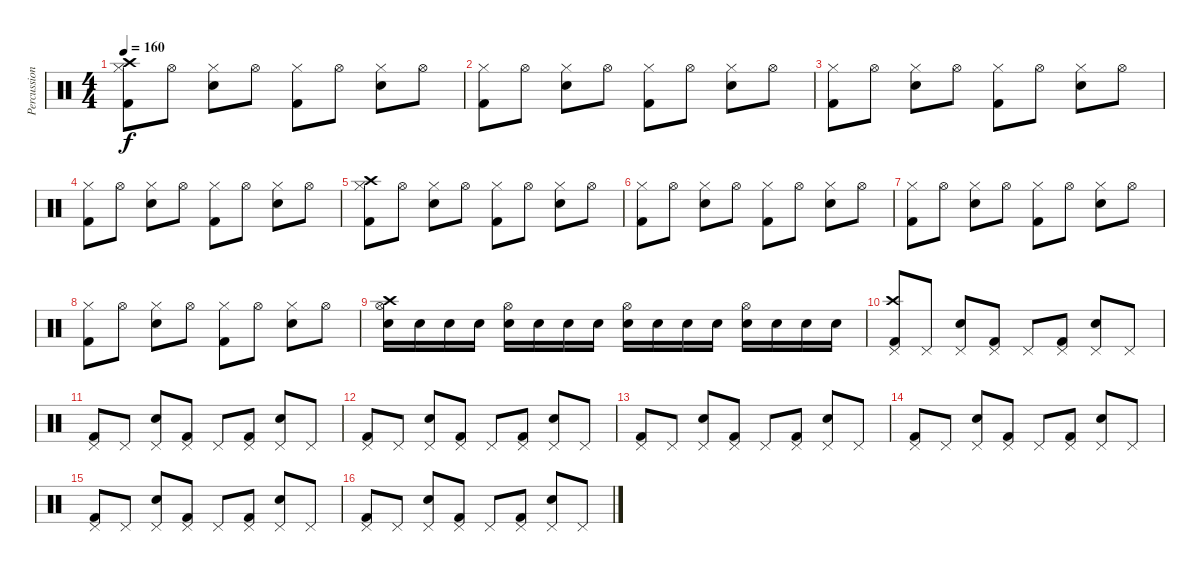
\track ("Percussion" "Percussion") {instrument percussion}
\staff {score}
\articulation defaults
\ts (4 4)
\tempo 160
\clef neutral
\ks c
("Hi-Hat (closed)" "Kick (hit) 2" "Crash high (hit)").8{dy f} "Hi-Hat (open)".8 ("Hi-Hat (closed)" "Electric Snare (hit)").8 "Hi-Hat (open)".8 ("Hi-Hat (closed)" "Kick (hit) 2").8 "Hi-Hat (open)".8 ("Hi-Hat (closed)" "Electric Snare (hit)").8 "Hi-Hat (open)".8 |
("Hi-Hat (closed)" "Kick (hit) 2").8 "Hi-Hat (open)".8 ("Hi-Hat (closed)" "Electric Snare (hit)").8 "Hi-Hat (open)".8 ("Hi-Hat (closed)" "Kick (hit) 2").8 "Hi-Hat (open)".8 ("Hi-Hat (closed)" "Electric Snare (hit)").8 "Hi-Hat (open)".8 |
("Hi-Hat (closed)" "Kick (hit) 2").8 "Hi-Hat (open)".8 ("Hi-Hat (closed)" "Electric Snare (hit)").8 "Hi-Hat (open)".8 ("Hi-Hat (closed)" "Kick (hit) 2").8 "Hi-Hat (open)".8 ("Hi-Hat (closed)" "Electric Snare (hit)").8 "Hi-Hat (open)".8 |
("Hi-Hat (closed)" "Kick (hit) 2").8 "Hi-Hat (open)".8 ("Hi-Hat (closed)" "Electric Snare (hit)").8 "Hi-Hat (open)".8 ("Hi-Hat (closed)" "Kick (hit) 2").8 "Hi-Hat (open)".8 ("Hi-Hat (closed)" "Electric Snare (hit)").8 "Hi-Hat (open)".8 |
("Hi-Hat (closed)" "Kick (hit) 2" "Crash high (hit)").8 "Hi-Hat (open)".8 ("Hi-Hat (closed)" "Electric Snare (hit)").8 "Hi-Hat (open)".8 ("Hi-Hat (closed)" "Kick (hit) 2").8 "Hi-Hat (open)".8 ("Hi-Hat (closed)" "Electric Snare (hit)").8 "Hi-Hat (open)".8 |
("Hi-Hat (closed)" "Kick (hit) 2").8 "Hi-Hat (open)".8 ("Hi-Hat (closed)" "Electric Snare (hit)").8 "Hi-Hat (open)".8 ("Hi-Hat (closed)" "Kick (hit) 2").8 "Hi-Hat (open)".8 ("Hi-Hat (closed)" "Electric Snare (hit)").8 "Hi-Hat (open)".8 |
("Hi-Hat (closed)" "Kick (hit) 2").8 "Hi-Hat (open)".8 ("Hi-Hat (closed)" "Electric Snare (hit)").8 "Hi-Hat (open)".8 ("Hi-Hat (closed)" "Kick (hit) 2").8 "Hi-Hat (open)".8 ("Hi-Hat (closed)" "Electric Snare (hit)").8 "Hi-Hat (open)".8 |
("Hi-Hat (closed)" "Kick (hit) 2").8 "Hi-Hat (open)".8 ("Hi-Hat (closed)" "Electric Snare (hit)").8 "Hi-Hat (open)".8 ("Hi-Hat (closed)" "Kick (hit) 2").8 "Hi-Hat (open)".8 ("Hi-Hat (closed)" "Electric Snare (hit)").8 "Hi-Hat (open)".8 |
("Hi-Hat (open)" "Electric Snare (hit)" "Crash high (hit)").16 "Electric Snare (hit)".16 "Electric Snare (hit)".16 "Electric Snare (hit)".16 ("Hi-Hat (open)" "Electric Snare (hit)").16 "Electric Snare (hit)".16 "Electric Snare (hit)".16 "Electric Snare (hit)".16 ("Hi-Hat (open)" "Electric Snare (hit)").16 "Electric Snare (hit)".16 "Electric Snare (hit)".16 "Electric Snare (hit)".16 ("Hi-Hat (open)" "Electric Snare (hit)").16 "Electric Snare (hit)".16 "Electric Snare (hit)".16 "Electric Snare (hit)".16 |
("Pedal Hi-Hat (hit)" "Kick (hit) 2" "Crash high (hit)").8 "Pedal Hi-Hat (hit)".8 ("Pedal Hi-Hat (hit)" "Electric Snare (hit)").8 ("Pedal Hi-Hat (hit)" "Kick (hit) 2").8 "Pedal Hi-Hat (hit)".8 ("Pedal Hi-Hat (hit)" "Kick (hit) 2").8 ("Pedal Hi-Hat (hit)" "Electric Snare (hit)").8 "Pedal Hi-Hat (hit)".8 |
("Pedal Hi-Hat (hit)" "Kick (hit) 2").8 "Pedal Hi-Hat (hit)".8 ("Pedal Hi-Hat (hit)" "Electric Snare (hit)").8 ("Pedal Hi-Hat (hit)" "Kick (hit) 2").8 "Pedal Hi-Hat (hit)".8 ("Pedal Hi-Hat (hit)" "Kick (hit) 2").8 ("Pedal Hi-Hat (hit)" "Electric Snare (hit)").8 "Pedal Hi-Hat (hit)".8 |
("Pedal Hi-Hat (hit)" "Kick (hit) 2").8 "Pedal Hi-Hat (hit)".8 ("Pedal Hi-Hat (hit)" "Electric Snare (hit)").8 ("Pedal Hi-Hat (hit)" "Kick (hit) 2").8 "Pedal Hi-Hat (hit)".8 ("Pedal Hi-Hat (hit)" "Kick (hit) 2").8 ("Pedal Hi-Hat (hit)" "Electric Snare (hit)").8 "Pedal Hi-Hat (hit)".8 |
("Pedal Hi-Hat (hit)" "Kick (hit) 2").8 "Pedal Hi-Hat (hit)".8 ("Pedal Hi-Hat (hit)" "Electric Snare (hit)").8 ("Pedal Hi-Hat (hit)" "Kick (hit) 2").8 "Pedal Hi-Hat (hit)".8 ("Pedal Hi-Hat (hit)" "Kick (hit) 2").8 ("Pedal Hi-Hat (hit)" "Electric Snare (hit)").8 "Pedal Hi-Hat (hit)".8 |
("Pedal Hi-Hat (hit)" "Kick (hit) 2").8 "Pedal Hi-Hat (hit)".8 ("Pedal Hi-Hat (hit)" "Electric Snare (hit)").8 ("Pedal Hi-Hat (hit)" "Kick (hit) 2").8 "Pedal Hi-Hat (hit)".8 ("Pedal Hi-Hat (hit)" "Kick (hit) 2").8 ("Pedal Hi-Hat (hit)" "Electric Snare (hit)").8 "Pedal Hi-Hat (hit)".8 |
("Pedal Hi-Hat (hit)" "Kick (hit) 2").8 "Pedal Hi-Hat (hit)".8 ("Pedal Hi-Hat (hit)" "Electric Snare (hit)").8 ("Pedal Hi-Hat (hit)" "Kick (hit) 2").8 "Pedal Hi-Hat (hit)".8 ("Pedal Hi-Hat (hit)" "Kick (hit) 2").8 ("Pedal Hi-Hat (hit)" "Electric Snare (hit)").8 "Pedal Hi-Hat (hit)".8 |
("Pedal Hi-Hat (hit)" "Kick (hit) 2").8 "Pedal Hi-Hat (hit)".8 ("Pedal Hi-Hat (hit)" "Electric Snare (hit)").8 ("Pedal Hi-Hat (hit)" "Kick (hit) 2").8 "Pedal Hi-Hat (hit)".8 ("Pedal Hi-Hat (hit)" "Kick (hit) 2").8 ("Pedal Hi-Hat (hit)" "Electric Snare (hit)").8 "Pedal Hi-Hat (hit)".8
